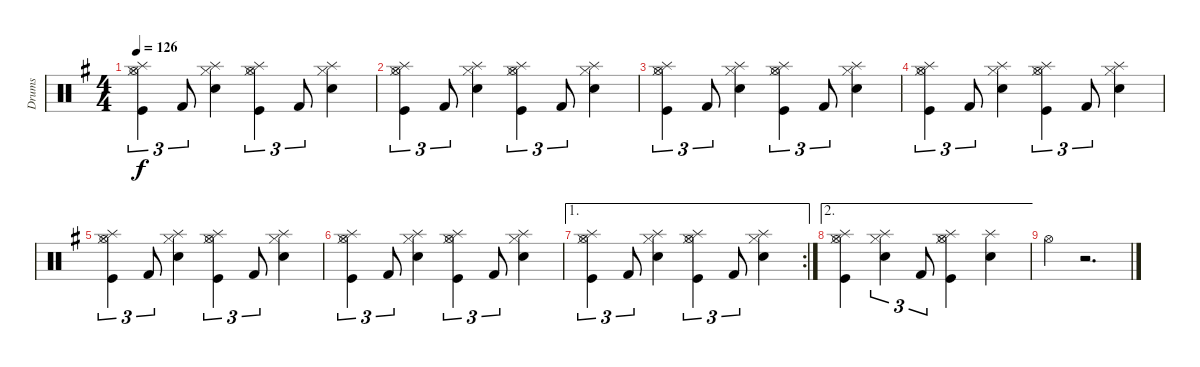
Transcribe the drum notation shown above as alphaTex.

\track ("Drums" "Drums") {instrument percussion}
\staff {score}
\articulation defaults
\ts (4 4)
\tempo 126
\clef neutral
\ks eminor
("Splash (hit)" "Hi-Hat (closed)" "Hi-Hat (open)" "Kick (hit)").4{tu (3 2) dy f} "Kick (hit) 2".8{tu (3 2)} ("Splash (hit)" "Hi-Hat (closed)" "Electric Snare (hit)").4 ("Splash (hit)" "Hi-Hat (closed)" "Hi-Hat (open)" "Kick (hit)").4{tu (3 2)} "Kick (hit) 2".8{tu (3 2)} ("Splash (hit)" "Hi-Hat (closed)" "Electric Snare (hit)").4 |
("Splash (hit)" "Hi-Hat (closed)" "Hi-Hat (open)" "Kick (hit)").4{tu (3 2)} "Kick (hit) 2".8{tu (3 2)} ("Splash (hit)" "Hi-Hat (closed)" "Electric Snare (hit)").4 ("Splash (hit)" "Hi-Hat (closed)" "Hi-Hat (open)" "Kick (hit)").4{tu (3 2)} "Kick (hit) 2".8{tu (3 2)} ("Splash (hit)" "Hi-Hat (closed)" "Electric Snare (hit)").4 |
("Splash (hit)" "Hi-Hat (closed)" "Hi-Hat (open)" "Kick (hit)").4{tu (3 2)} "Kick (hit) 2".8{tu (3 2)} ("Splash (hit)" "Hi-Hat (closed)" "Electric Snare (hit)").4 ("Splash (hit)" "Hi-Hat (closed)" "Hi-Hat (open)" "Kick (hit)").4{tu (3 2)} "Kick (hit) 2".8{tu (3 2)} ("Splash (hit)" "Hi-Hat (closed)" "Electric Snare (hit)").4 |
("Splash (hit)" "Hi-Hat (closed)" "Hi-Hat (open)" "Kick (hit)").4{tu (3 2)} "Kick (hit) 2".8{tu (3 2)} ("Splash (hit)" "Hi-Hat (closed)" "Electric Snare (hit)").4 ("Splash (hit)" "Hi-Hat (closed)" "Hi-Hat (open)" "Kick (hit)").4{tu (3 2)} "Kick (hit) 2".8{tu (3 2)} ("Splash (hit)" "Hi-Hat (closed)" "Electric Snare (hit)").4 |
("Splash (hit)" "Hi-Hat (closed)" "Hi-Hat (open)" "Kick (hit)").4{tu (3 2)} "Kick (hit) 2".8{tu (3 2)} ("Splash (hit)" "Hi-Hat (closed)" "Electric Snare (hit)").4 ("Splash (hit)" "Hi-Hat (closed)" "Hi-Hat (open)" "Kick (hit)").4{tu (3 2)} "Kick (hit) 2".8{tu (3 2)} ("Splash (hit)" "Hi-Hat (closed)" "Electric Snare (hit)").4 |
("Splash (hit)" "Hi-Hat (closed)" "Hi-Hat (open)" "Kick (hit)").4{tu (3 2)} "Kick (hit) 2".8{tu (3 2)} ("Splash (hit)" "Hi-Hat (closed)" "Electric Snare (hit)").4 ("Splash (hit)" "Hi-Hat (closed)" "Hi-Hat (open)" "Kick (hit)").4{tu (3 2)} "Kick (hit) 2".8{tu (3 2)} ("Splash (hit)" "Hi-Hat (closed)" "Electric Snare (hit)").4 |
\ae 1
\rc 2
("Splash (hit)" "Hi-Hat (closed)" "Hi-Hat (open)" "Kick (hit)").4{tu (3 2)} "Kick (hit) 2".8{tu (3 2)} ("Splash (hit)" "Hi-Hat (closed)" "Electric Snare (hit)").4 ("Splash (hit)" "Hi-Hat (closed)" "Hi-Hat (open)" "Kick (hit)").4{tu (3 2)} "Kick (hit) 2".8{tu (3 2)} ("Splash (hit)" "Hi-Hat (closed)" "Electric Snare (hit)").4 |
\ae 2
("Splash (hit)" "Hi-Hat (closed)" "Hi-Hat (open)" "Kick (hit)").4 ("Splash (hit)" "Hi-Hat (closed)" "Electric Snare (hit)").4{tu (3 2)} "Kick (hit) 2".8{tu (3 2)} ("Splash (hit)" "Hi-Hat (closed)" "Hi-Hat (open)" "Kick (hit)").4 ("Splash (hit)" "Electric Snare (hit)").4 |
"Hi-Hat (open)".4 r.2{d}
